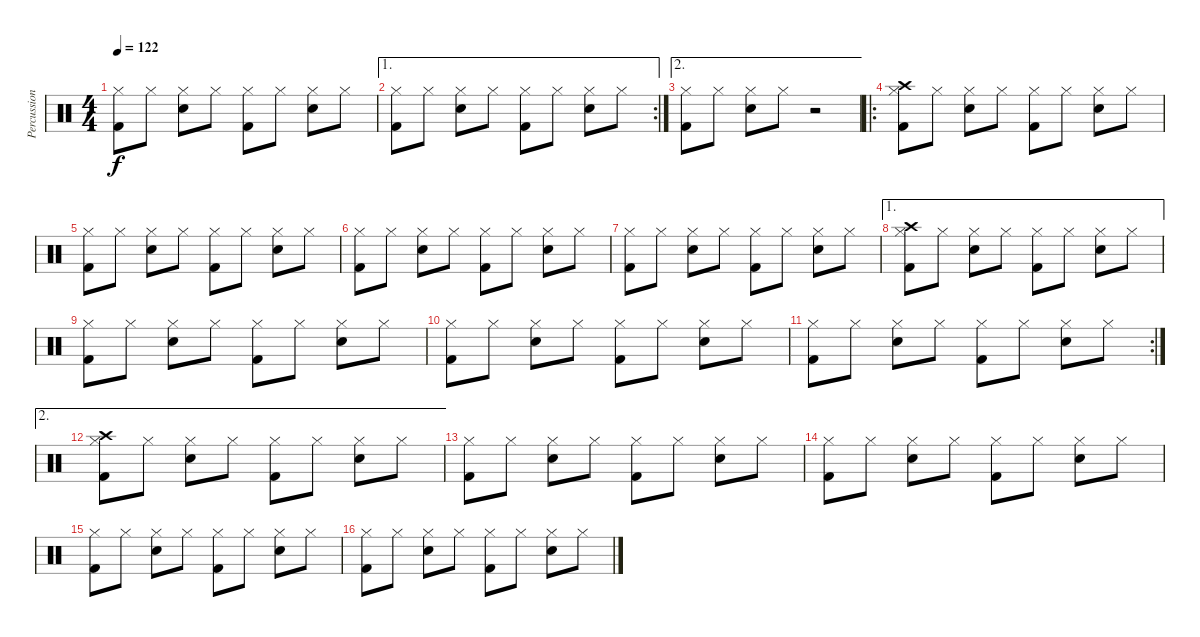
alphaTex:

\track ("Percussion" "Percussion") {instrument percussion}
\staff {score}
\articulation defaults
\ts (4 4)
\tempo 122
\clef neutral
\ks c
("Hi-Hat (closed)" "Kick (hit) 2").8{dy f} "Hi-Hat (closed)".8 ("Hi-Hat (closed)" "Snare (hit) 2").8 "Hi-Hat (closed)".8 ("Hi-Hat (closed)" "Kick (hit) 2").8 "Hi-Hat (closed)".8 ("Hi-Hat (closed)" "Snare (hit) 2").8 "Hi-Hat (closed)".8 |
\ae 1
\rc 2
("Hi-Hat (closed)" "Kick (hit) 2").8 "Hi-Hat (closed)".8 ("Hi-Hat (closed)" "Snare (hit) 2").8 "Hi-Hat (closed)".8 ("Hi-Hat (closed)" "Kick (hit) 2").8 "Hi-Hat (closed)".8 ("Hi-Hat (closed)" "Snare (hit) 2").8 "Hi-Hat (closed)".8 |
\ae 2
("Hi-Hat (closed)" "Kick (hit) 2").8 "Hi-Hat (closed)".8 ("Hi-Hat (closed)" "Snare (hit) 2").8 "Hi-Hat (closed)".8 r.2 |
\ro
("Crash high (hit)" "Hi-Hat (closed)" "Kick (hit) 2").8 "Hi-Hat (closed)".8 ("Hi-Hat (closed)" "Snare (hit) 2").8 "Hi-Hat (closed)".8 ("Hi-Hat (closed)" "Kick (hit) 2").8 "Hi-Hat (closed)".8 ("Hi-Hat (closed)" "Snare (hit) 2").8 "Hi-Hat (closed)".8 |
("Hi-Hat (closed)" "Kick (hit) 2").8 "Hi-Hat (closed)".8 ("Hi-Hat (closed)" "Snare (hit) 2").8 "Hi-Hat (closed)".8 ("Hi-Hat (closed)" "Kick (hit) 2").8 "Hi-Hat (closed)".8 ("Hi-Hat (closed)" "Snare (hit) 2").8 "Hi-Hat (closed)".8 |
("Hi-Hat (closed)" "Kick (hit) 2").8 "Hi-Hat (closed)".8 ("Hi-Hat (closed)" "Snare (hit) 2").8 "Hi-Hat (closed)".8 ("Hi-Hat (closed)" "Kick (hit) 2").8 "Hi-Hat (closed)".8 ("Hi-Hat (closed)" "Snare (hit) 2").8 "Hi-Hat (closed)".8 |
("Hi-Hat (closed)" "Kick (hit) 2").8 "Hi-Hat (closed)".8 ("Hi-Hat (closed)" "Snare (hit) 2").8 "Hi-Hat (closed)".8 ("Hi-Hat (closed)" "Kick (hit) 2").8 "Hi-Hat (closed)".8 ("Hi-Hat (closed)" "Snare (hit) 2").8 "Hi-Hat (closed)".8 |
\ae 1
("Crash high (hit)" "Hi-Hat (closed)" "Kick (hit) 2").8 "Hi-Hat (closed)".8 ("Hi-Hat (closed)" "Snare (hit) 2").8 "Hi-Hat (closed)".8 ("Hi-Hat (closed)" "Kick (hit) 2").8 "Hi-Hat (closed)".8 ("Hi-Hat (closed)" "Snare (hit) 2").8 "Hi-Hat (closed)".8 |
("Hi-Hat (closed)" "Kick (hit) 2").8 "Hi-Hat (closed)".8 ("Hi-Hat (closed)" "Snare (hit) 2").8 "Hi-Hat (closed)".8 ("Hi-Hat (closed)" "Kick (hit) 2").8 "Hi-Hat (closed)".8 ("Hi-Hat (closed)" "Snare (hit) 2").8 "Hi-Hat (closed)".8 |
("Hi-Hat (closed)" "Kick (hit) 2").8 "Hi-Hat (closed)".8 ("Hi-Hat (closed)" "Snare (hit) 2").8 "Hi-Hat (closed)".8 ("Hi-Hat (closed)" "Kick (hit) 2").8 "Hi-Hat (closed)".8 ("Hi-Hat (closed)" "Snare (hit) 2").8 "Hi-Hat (closed)".8 |
\rc 2
("Hi-Hat (closed)" "Kick (hit) 2").8 "Hi-Hat (closed)".8 ("Hi-Hat (closed)" "Snare (hit) 2").8 "Hi-Hat (closed)".8 ("Hi-Hat (closed)" "Kick (hit) 2").8 "Hi-Hat (closed)".8 ("Hi-Hat (closed)" "Snare (hit) 2").8 "Hi-Hat (closed)".8 |
\ae 2
("Crash high (hit)" "Hi-Hat (closed)" "Kick (hit) 2").8 "Hi-Hat (closed)".8 ("Hi-Hat (closed)" "Snare (hit) 2").8 "Hi-Hat (closed)".8 ("Hi-Hat (closed)" "Kick (hit) 2").8 "Hi-Hat (closed)".8 ("Hi-Hat (closed)" "Snare (hit) 2").8 "Hi-Hat (closed)".8 |
("Hi-Hat (closed)" "Kick (hit) 2").8 "Hi-Hat (closed)".8 ("Hi-Hat (closed)" "Snare (hit) 2").8 "Hi-Hat (closed)".8 ("Hi-Hat (closed)" "Kick (hit) 2").8 "Hi-Hat (closed)".8 ("Hi-Hat (closed)" "Snare (hit) 2").8 "Hi-Hat (closed)".8 |
("Hi-Hat (closed)" "Kick (hit) 2").8 "Hi-Hat (closed)".8 ("Hi-Hat (closed)" "Snare (hit) 2").8 "Hi-Hat (closed)".8 ("Hi-Hat (closed)" "Kick (hit) 2").8 "Hi-Hat (closed)".8 ("Hi-Hat (closed)" "Snare (hit) 2").8 "Hi-Hat (closed)".8 |
("Hi-Hat (closed)" "Kick (hit) 2").8 "Hi-Hat (closed)".8 ("Hi-Hat (closed)" "Snare (hit) 2").8 "Hi-Hat (closed)".8 ("Hi-Hat (closed)" "Kick (hit) 2").8 "Hi-Hat (closed)".8 ("Hi-Hat (closed)" "Snare (hit) 2").8 "Hi-Hat (closed)".8 |
("Hi-Hat (closed)" "Kick (hit) 2").8 "Hi-Hat (closed)".8 ("Hi-Hat (closed)" "Snare (hit) 2").8 "Hi-Hat (closed)".8 ("Hi-Hat (closed)" "Kick (hit) 2").8 "Hi-Hat (closed)".8 ("Hi-Hat (closed)" "Snare (hit) 2").8 "Hi-Hat (closed)".8
